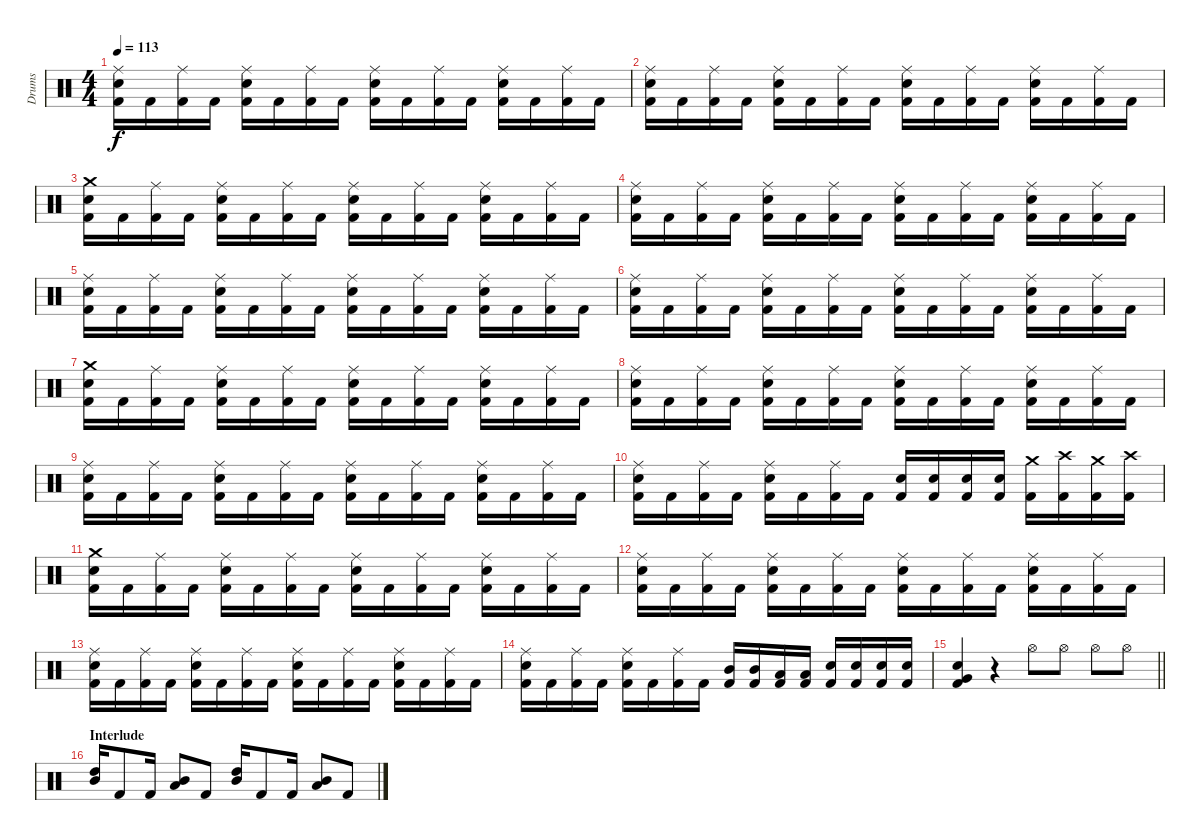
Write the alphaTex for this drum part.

\track ("Drums" "Drums") {instrument percussion}
\staff {score}
\articulation defaults
\ts (4 4)
\tempo 113
\clef neutral
\ks c
("Kick (hit) 2" "Snare (hit) 2" "Ride (middle)").16{dy f} "Kick (hit) 2".16 ("Kick (hit) 2" "Ride (middle)").16 "Kick (hit) 2".16 ("Kick (hit) 2" "Snare (hit) 2" "Ride (middle)").16 "Kick (hit) 2".16 ("Kick (hit) 2" "Ride (middle)").16 "Kick (hit) 2".16 ("Kick (hit) 2" "Snare (hit) 2" "Ride (middle)").16 "Kick (hit) 2".16 ("Kick (hit) 2" "Ride (middle)").16 "Kick (hit) 2".16 ("Kick (hit) 2" "Snare (hit) 2" "Ride (middle)").16 "Kick (hit) 2".16 ("Kick (hit) 2" "Ride (middle)").16 "Kick (hit) 2".16 |
("Kick (hit) 2" "Snare (hit) 2" "Ride (middle)").16 "Kick (hit) 2".16 ("Kick (hit) 2" "Ride (middle)").16 "Kick (hit) 2".16 ("Kick (hit) 2" "Snare (hit) 2" "Ride (middle)").16 "Kick (hit) 2".16 ("Kick (hit) 2" "Ride (middle)").16 "Kick (hit) 2".16 ("Kick (hit) 2" "Snare (hit) 2" "Ride (middle)").16 "Kick (hit) 2".16 ("Kick (hit) 2" "Ride (middle)").16 "Kick (hit) 2".16 ("Kick (hit) 2" "Snare (hit) 2" "Ride (middle)").16 "Kick (hit) 2".16 ("Kick (hit) 2" "Ride (middle)").16 "Kick (hit) 2".16 |
("Kick (hit) 2" "Snare (hit) 2" "Crash medium (hit)").16 "Kick (hit) 2".16 ("Kick (hit) 2" "Ride (middle)").16 "Kick (hit) 2".16 ("Kick (hit) 2" "Snare (hit) 2" "Ride (middle)").16 "Kick (hit) 2".16 ("Kick (hit) 2" "Ride (middle)").16 "Kick (hit) 2".16 ("Kick (hit) 2" "Snare (hit) 2" "Ride (middle)").16 "Kick (hit) 2".16 ("Kick (hit) 2" "Ride (middle)").16 "Kick (hit) 2".16 ("Kick (hit) 2" "Snare (hit) 2" "Ride (middle)").16 "Kick (hit) 2".16 ("Kick (hit) 2" "Ride (middle)").16 "Kick (hit) 2".16 |
("Kick (hit) 2" "Snare (hit) 2" "Ride (middle)").16 "Kick (hit) 2".16 ("Kick (hit) 2" "Ride (middle)").16 "Kick (hit) 2".16 ("Kick (hit) 2" "Snare (hit) 2" "Ride (middle)").16 "Kick (hit) 2".16 ("Kick (hit) 2" "Ride (middle)").16 "Kick (hit) 2".16 ("Kick (hit) 2" "Snare (hit) 2" "Ride (middle)").16 "Kick (hit) 2".16 ("Kick (hit) 2" "Ride (middle)").16 "Kick (hit) 2".16 ("Kick (hit) 2" "Snare (hit) 2" "Ride (middle)").16 "Kick (hit) 2".16 ("Kick (hit) 2" "Ride (middle)").16 "Kick (hit) 2".16 |
("Kick (hit) 2" "Snare (hit) 2" "Ride (middle)").16 "Kick (hit) 2".16 ("Kick (hit) 2" "Ride (middle)").16 "Kick (hit) 2".16 ("Kick (hit) 2" "Snare (hit) 2" "Ride (middle)").16 "Kick (hit) 2".16 ("Kick (hit) 2" "Ride (middle)").16 "Kick (hit) 2".16 ("Kick (hit) 2" "Snare (hit) 2" "Ride (middle)").16 "Kick (hit) 2".16 ("Kick (hit) 2" "Ride (middle)").16 "Kick (hit) 2".16 ("Kick (hit) 2" "Snare (hit) 2" "Ride (middle)").16 "Kick (hit) 2".16 ("Kick (hit) 2" "Ride (middle)").16 "Kick (hit) 2".16 |
("Kick (hit) 2" "Snare (hit) 2" "Ride (middle)").16 "Kick (hit) 2".16 ("Kick (hit) 2" "Ride (middle)").16 "Kick (hit) 2".16 ("Kick (hit) 2" "Snare (hit) 2" "Ride (middle)").16 "Kick (hit) 2".16 ("Kick (hit) 2" "Ride (middle)").16 "Kick (hit) 2".16 ("Kick (hit) 2" "Snare (hit) 2" "Ride (middle)").16 "Kick (hit) 2".16 ("Kick (hit) 2" "Ride (middle)").16 "Kick (hit) 2".16 ("Kick (hit) 2" "Snare (hit) 2" "Ride (middle)").16 "Kick (hit) 2".16 ("Kick (hit) 2" "Ride (middle)").16 "Kick (hit) 2".16 |
("Kick (hit) 2" "Snare (hit) 2" "Crash medium (hit)").16 "Kick (hit) 2".16 ("Kick (hit) 2" "Ride (middle)").16 "Kick (hit) 2".16 ("Kick (hit) 2" "Snare (hit) 2" "Ride (middle)").16 "Kick (hit) 2".16 ("Kick (hit) 2" "Ride (middle)").16 "Kick (hit) 2".16 ("Kick (hit) 2" "Snare (hit) 2" "Ride (middle)").16 "Kick (hit) 2".16 ("Kick (hit) 2" "Ride (middle)").16 "Kick (hit) 2".16 ("Kick (hit) 2" "Snare (hit) 2" "Ride (middle)").16 "Kick (hit) 2".16 ("Kick (hit) 2" "Ride (middle)").16 "Kick (hit) 2".16 |
("Kick (hit) 2" "Snare (hit) 2" "Ride (middle)").16 "Kick (hit) 2".16 ("Kick (hit) 2" "Ride (middle)").16 "Kick (hit) 2".16 ("Kick (hit) 2" "Snare (hit) 2" "Ride (middle)").16 "Kick (hit) 2".16 ("Kick (hit) 2" "Ride (middle)").16 "Kick (hit) 2".16 ("Kick (hit) 2" "Snare (hit) 2" "Ride (middle)").16 "Kick (hit) 2".16 ("Kick (hit) 2" "Ride (middle)").16 "Kick (hit) 2".16 ("Kick (hit) 2" "Snare (hit) 2" "Ride (middle)").16 "Kick (hit) 2".16 ("Kick (hit) 2" "Ride (middle)").16 "Kick (hit) 2".16 |
("Kick (hit) 2" "Snare (hit) 2" "Ride (middle)").16 "Kick (hit) 2".16 ("Kick (hit) 2" "Ride (middle)").16 "Kick (hit) 2".16 ("Kick (hit) 2" "Snare (hit) 2" "Ride (middle)").16 "Kick (hit) 2".16 ("Kick (hit) 2" "Ride (middle)").16 "Kick (hit) 2".16 ("Kick (hit) 2" "Snare (hit) 2" "Ride (middle)").16 "Kick (hit) 2".16 ("Kick (hit) 2" "Ride (middle)").16 "Kick (hit) 2".16 ("Kick (hit) 2" "Snare (hit) 2" "Ride (middle)").16 "Kick (hit) 2".16 ("Kick (hit) 2" "Ride (middle)").16 "Kick (hit) 2".16 |
("Kick (hit) 2" "Snare (hit) 2" "Ride (middle)").16 "Kick (hit) 2".16 ("Kick (hit) 2" "Ride (middle)").16 "Kick (hit) 2".16 ("Kick (hit) 2" "Snare (hit) 2" "Ride (middle)").16 "Kick (hit) 2".16 ("Kick (hit) 2" "Ride (middle)").16 "Kick (hit) 2".16 ("Kick (hit) 2" "Snare (hit) 2").16 ("Kick (hit) 2" "Snare (hit) 2").16 ("Kick (hit) 2" "Snare (hit) 2").16 ("Kick (hit) 2" "Snare (hit) 2").16 ("Kick (hit) 2" "Crash medium (hit)").16 ("Kick (hit) 2" "Crash high (hit)").16 ("Kick (hit) 2" "Crash medium (hit)").16 ("Kick (hit) 2" "Crash high (hit)").16 |
("Kick (hit) 2" "Snare (hit) 2" "Crash medium (hit)").16 "Kick (hit) 2".16 ("Kick (hit) 2" "Ride (middle)").16 "Kick (hit) 2".16 ("Kick (hit) 2" "Snare (hit) 2" "Ride (middle)").16 "Kick (hit) 2".16 ("Kick (hit) 2" "Ride (middle)").16 "Kick (hit) 2".16 ("Kick (hit) 2" "Snare (hit) 2" "Ride (middle)").16 "Kick (hit) 2".16 ("Kick (hit) 2" "Ride (middle)").16 "Kick (hit) 2".16 ("Kick (hit) 2" "Snare (hit) 2" "Ride (middle)").16 "Kick (hit) 2".16 ("Kick (hit) 2" "Ride (middle)").16 "Kick (hit) 2".16 |
("Kick (hit) 2" "Snare (hit) 2" "Ride (middle)").16 "Kick (hit) 2".16 ("Kick (hit) 2" "Ride (middle)").16 "Kick (hit) 2".16 ("Kick (hit) 2" "Snare (hit) 2" "Ride (middle)").16 "Kick (hit) 2".16 ("Kick (hit) 2" "Ride (middle)").16 "Kick (hit) 2".16 ("Kick (hit) 2" "Snare (hit) 2" "Ride (middle)").16 "Kick (hit) 2".16 ("Kick (hit) 2" "Ride (middle)").16 "Kick (hit) 2".16 ("Kick (hit) 2" "Snare (hit) 2" "Ride (middle)").16 "Kick (hit) 2".16 ("Kick (hit) 2" "Ride (middle)").16 "Kick (hit) 2".16 |
("Kick (hit) 2" "Snare (hit) 2" "Ride (middle)").16 "Kick (hit) 2".16 ("Kick (hit) 2" "Ride (middle)").16 "Kick (hit) 2".16 ("Kick (hit) 2" "Snare (hit) 2" "Ride (middle)").16 "Kick (hit) 2".16 ("Kick (hit) 2" "Ride (middle)").16 "Kick (hit) 2".16 ("Kick (hit) 2" "Snare (hit) 2" "Ride (middle)").16 "Kick (hit) 2".16 ("Kick (hit) 2" "Ride (middle)").16 "Kick (hit) 2".16 ("Kick (hit) 2" "Snare (hit) 2" "Ride (middle)").16 "Kick (hit) 2".16 ("Kick (hit) 2" "Ride (middle)").16 "Kick (hit) 2".16 |
("Kick (hit) 2" "Snare (hit) 2" "Ride (middle)").16 "Kick (hit) 2".16 ("Kick (hit) 2" "Ride (middle)").16 "Kick (hit) 2".16 ("Kick (hit) 2" "Snare (hit) 2" "Ride (middle)").16 "Kick (hit) 2".16 ("Kick (hit) 2" "Ride (middle)").16 "Kick (hit) 2".16 ("Kick (hit) 2" "Mid Tom (hit)").16 ("Kick (hit) 2" "Mid Tom (hit)").16 ("Kick (hit) 2" "Low Tom (hit)").16 ("Kick (hit) 2" "Low Tom (hit)").16 ("Kick (hit) 2" "Snare (hit) 2").16 ("Kick (hit) 2" "Snare (hit) 2").16 ("Kick (hit) 2" "Snare (hit) 2").16 ("Kick (hit) 2" "Snare (hit) 2").16 |
\barLineRight lightlight
("Kick (hit) 2" "Snare (hit) 2" "Very Low Tom (hit)").4 r.4 "Hi-Hat (open)".8 "Hi-Hat (open)".8 "Hi-Hat (open)".8 "Hi-Hat (open)".8 |
\section ("" "Interlude")
("High Tom (hit)" "Mid Tom (hit)").16 "Kick (hit) 2".8 "Kick (hit) 2".16 ("Mid Tom (hit)" "Low Tom (hit)").8 "Kick (hit) 2".8 ("High Tom (hit)" "Mid Tom (hit)").16 "Kick (hit) 2".8 "Kick (hit) 2".16 ("Mid Tom (hit)" "Low Tom (hit)").8 "Kick (hit) 2".8
